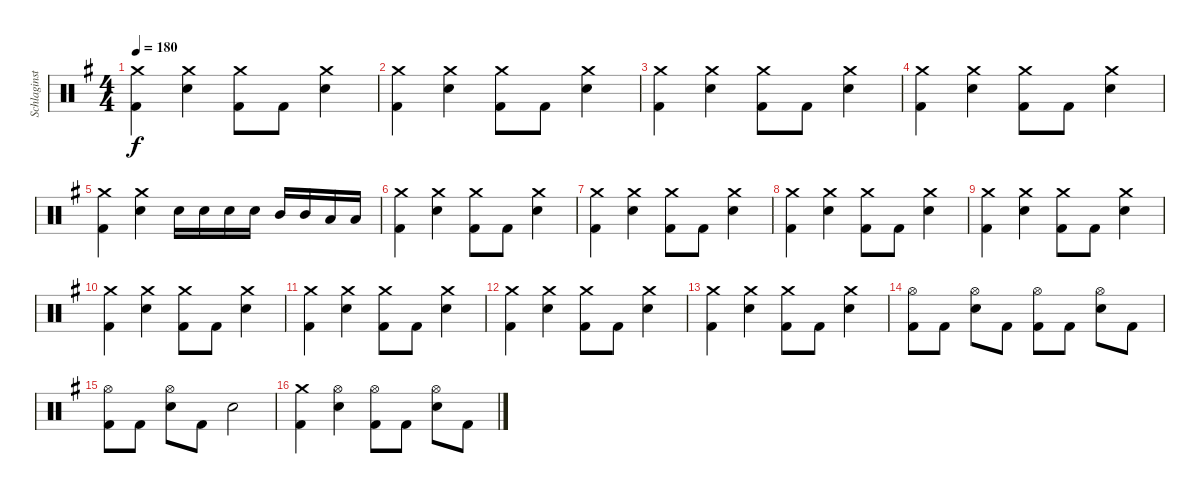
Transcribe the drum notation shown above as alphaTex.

\track ("Schlaginstrumente - Auswahl" "Schlaginst") {instrument percussion}
\staff {score}
\articulation defaults
\ts (4 4)
\tempo 180
\clef neutral
\ks g
("Crash medium (hit)" "Kick (hit) 2").4{dy f} ("Crash medium (hit)" "Electric Snare (hit)").4 ("Crash medium (hit)" "Kick (hit) 2").8 "Kick (hit) 2".8 ("Crash medium (hit)" "Electric Snare (hit)").4 |
("Crash medium (hit)" "Kick (hit) 2").4 ("Crash medium (hit)" "Electric Snare (hit)").4 ("Crash medium (hit)" "Kick (hit) 2").8 "Kick (hit) 2".8 ("Crash medium (hit)" "Electric Snare (hit)").4 |
("Crash medium (hit)" "Kick (hit) 2").4 ("Crash medium (hit)" "Electric Snare (hit)").4 ("Crash medium (hit)" "Kick (hit) 2").8 "Kick (hit) 2".8 ("Crash medium (hit)" "Electric Snare (hit)").4 |
("Crash medium (hit)" "Kick (hit) 2").4 ("Crash medium (hit)" "Electric Snare (hit)").4 ("Crash medium (hit)" "Kick (hit) 2").8 "Kick (hit) 2".8 ("Crash medium (hit)" "Electric Snare (hit)").4 |
("Crash medium (hit)" "Kick (hit) 2").4 ("Crash medium (hit)" "Electric Snare (hit)").4 "Electric Snare (hit)".16 "Electric Snare (hit)".16 "Electric Snare (hit)".16 "Electric Snare (hit)".16 "Mid Tom (hit)".16 "Mid Tom (hit)".16 "Low Tom (hit)".16 "Low Tom (hit)".16 |
("Crash medium (hit)" "Kick (hit) 2").4 ("Crash medium (hit)" "Electric Snare (hit)").4 ("Crash medium (hit)" "Kick (hit) 2").8 "Kick (hit) 2".8 ("Crash medium (hit)" "Electric Snare (hit)").4 |
("Crash medium (hit)" "Kick (hit) 2").4 ("Crash medium (hit)" "Electric Snare (hit)").4 ("Crash medium (hit)" "Kick (hit) 2").8 "Kick (hit) 2".8 ("Crash medium (hit)" "Electric Snare (hit)").4 |
("Crash medium (hit)" "Kick (hit) 2").4 ("Crash medium (hit)" "Electric Snare (hit)").4 ("Crash medium (hit)" "Kick (hit) 2").8 "Kick (hit) 2".8 ("Crash medium (hit)" "Electric Snare (hit)").4 |
("Crash medium (hit)" "Kick (hit) 2").4 ("Crash medium (hit)" "Electric Snare (hit)").4 ("Crash medium (hit)" "Kick (hit) 2").8 "Kick (hit) 2".8 ("Crash medium (hit)" "Electric Snare (hit)").4 |
("Crash medium (hit)" "Kick (hit) 2").4 ("Crash medium (hit)" "Electric Snare (hit)").4 ("Crash medium (hit)" "Kick (hit) 2").8 "Kick (hit) 2".8 ("Crash medium (hit)" "Electric Snare (hit)").4 |
("Crash medium (hit)" "Kick (hit) 2").4 ("Crash medium (hit)" "Electric Snare (hit)").4 ("Crash medium (hit)" "Kick (hit) 2").8 "Kick (hit) 2".8 ("Crash medium (hit)" "Electric Snare (hit)").4 |
("Crash medium (hit)" "Kick (hit) 2").4 ("Crash medium (hit)" "Electric Snare (hit)").4 ("Crash medium (hit)" "Kick (hit) 2").8 "Kick (hit) 2".8 ("Crash medium (hit)" "Electric Snare (hit)").4 |
("Crash medium (hit)" "Kick (hit) 2").4 ("Crash medium (hit)" "Electric Snare (hit)").4 ("Crash medium (hit)" "Kick (hit) 2").8 "Kick (hit) 2".8 ("Crash medium (hit)" "Electric Snare (hit)").4 |
("Hi-Hat (open)" "Kick (hit) 2").8 "Kick (hit) 2".8 ("Hi-Hat (open)" "Electric Snare (hit)").8 "Kick (hit) 2".8 ("Hi-Hat (open)" "Kick (hit) 2").8 "Kick (hit) 2".8 ("Hi-Hat (open)" "Electric Snare (hit)").8 "Kick (hit) 2".8 |
("Hi-Hat (open)" "Kick (hit) 2").8 "Kick (hit) 2".8 ("Hi-Hat (open)" "Electric Snare (hit)").8 "Kick (hit) 2".8 "Electric Snare (hit)".2 |
("Crash medium (hit)" "Kick (hit) 2").4 ("Hi-Hat (open)" "Electric Snare (hit)").4 ("Hi-Hat (open)" "Kick (hit) 2").8 "Kick (hit) 2".8 ("Hi-Hat (open)" "Electric Snare (hit)").8 "Kick (hit) 2".8
